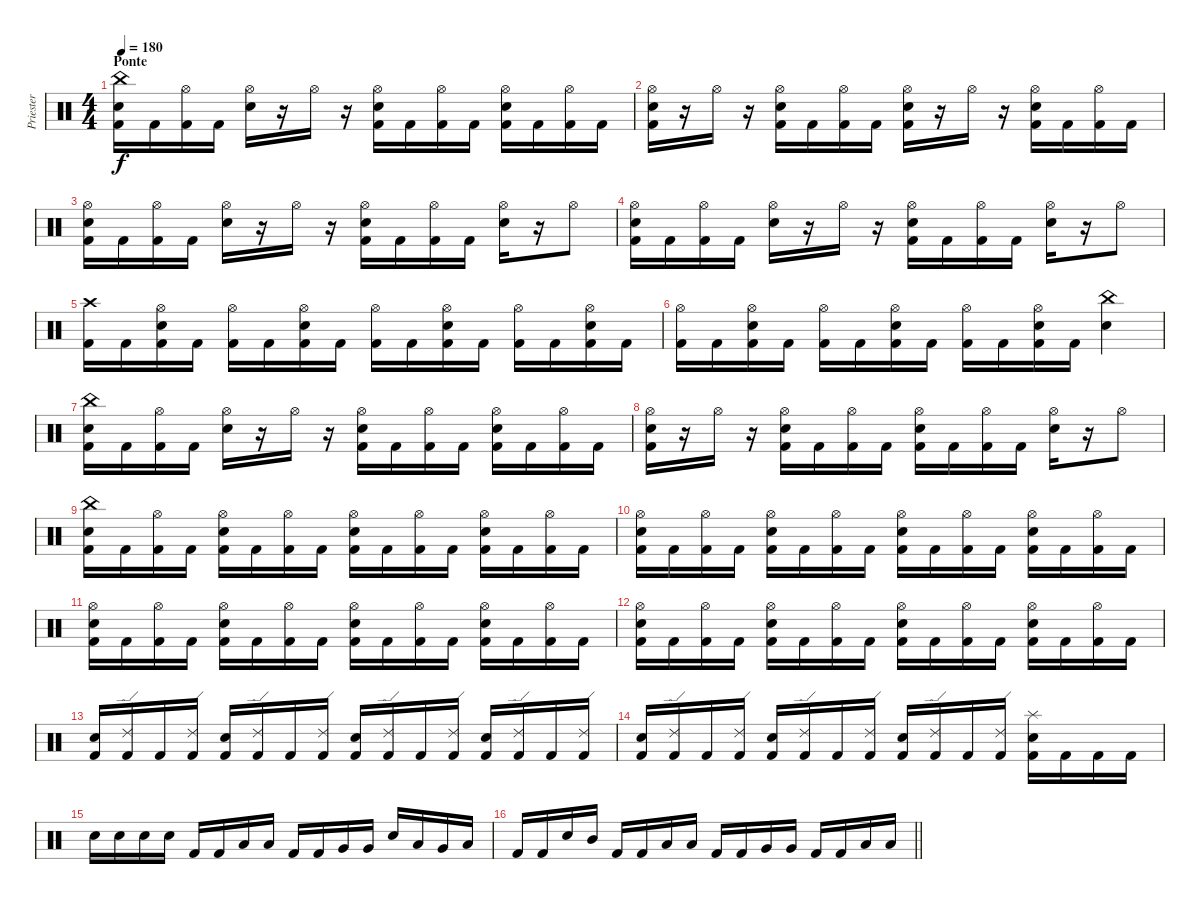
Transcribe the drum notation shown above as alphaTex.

\track ("Priester" "Priester") {instrument percussion}
\staff {score}
\articulation defaults
\ts (4 4)
\section ("" "Ponte")
\tempo 180
\clef neutral
\ks c
("China (hit)" "Electric Snare (hit)" "Kick (hit) 2").16{dy f} "Kick (hit) 2".16 ("Hi-Hat (open)" "Kick (hit) 2").16 "Kick (hit) 2".16 ("Hi-Hat (open)" "Electric Snare (hit)").16 r.16 "Hi-Hat (open)".16 r.16 ("Hi-Hat (open)" "Electric Snare (hit)" "Kick (hit) 2").16 "Kick (hit) 2".16 ("Hi-Hat (open)" "Kick (hit) 2").16 "Kick (hit) 2".16 ("Hi-Hat (open)" "Electric Snare (hit)" "Kick (hit) 2").16 "Kick (hit) 2".16 ("Hi-Hat (open)" "Kick (hit) 2").16 "Kick (hit) 2".16 |
("Hi-Hat (open)" "Electric Snare (hit)" "Kick (hit) 2").16 r.16 "Hi-Hat (open)".16 r.16 ("Hi-Hat (open)" "Electric Snare (hit)" "Kick (hit) 2").16 "Kick (hit) 2".16 ("Hi-Hat (open)" "Kick (hit) 2").16 "Kick (hit) 2".16 ("Hi-Hat (open)" "Electric Snare (hit)" "Kick (hit) 2").16 r.16 "Hi-Hat (open)".16 r.16 ("Hi-Hat (open)" "Electric Snare (hit)" "Kick (hit) 2").16 "Kick (hit) 2".16 ("Hi-Hat (open)" "Kick (hit) 2").16 "Kick (hit) 2".16 |
("Hi-Hat (open)" "Electric Snare (hit)" "Kick (hit) 2").16 "Kick (hit) 2".16 ("Hi-Hat (open)" "Kick (hit) 2").16 "Kick (hit) 2".16 ("Hi-Hat (open)" "Electric Snare (hit)").16 r.16 "Hi-Hat (open)".16 r.16 ("Hi-Hat (open)" "Electric Snare (hit)" "Kick (hit) 2").16 "Kick (hit) 2".16 ("Hi-Hat (open)" "Kick (hit) 2").16 "Kick (hit) 2".16 ("Hi-Hat (open)" "Electric Snare (hit)").16 r.16 "Hi-Hat (open)".8 |
("Hi-Hat (open)" "Electric Snare (hit)" "Kick (hit) 2").16 "Kick (hit) 2".16 ("Hi-Hat (open)" "Kick (hit) 2").16 "Kick (hit) 2".16 ("Hi-Hat (open)" "Electric Snare (hit)").16 r.16 "Hi-Hat (open)".16 r.16 ("Hi-Hat (open)" "Electric Snare (hit)" "Kick (hit) 2").16 "Kick (hit) 2".16 ("Hi-Hat (open)" "Kick (hit) 2").16 "Kick (hit) 2".16 ("Hi-Hat (open)" "Electric Snare (hit)").16 r.16 "Hi-Hat (open)".8 |
("Crash high (hit)" "Kick (hit) 2").16 "Kick (hit) 2".16 ("Hi-Hat (open)" "Electric Snare (hit)" "Kick (hit) 2").16 "Kick (hit) 2".16 ("Hi-Hat (open)" "Kick (hit) 2").16 "Kick (hit) 2".16 ("Hi-Hat (open)" "Electric Snare (hit)" "Kick (hit) 2").16 "Kick (hit) 2".16 ("Hi-Hat (open)" "Kick (hit) 2").16 "Kick (hit) 2".16 ("Hi-Hat (open)" "Electric Snare (hit)" "Kick (hit) 2").16 "Kick (hit) 2".16 ("Hi-Hat (open)" "Kick (hit) 2").16 "Kick (hit) 2".16 ("Hi-Hat (open)" "Electric Snare (hit)" "Kick (hit) 2").16 "Kick (hit) 2".16 |
("Hi-Hat (open)" "Kick (hit) 2").16 "Kick (hit) 2".16 ("Hi-Hat (open)" "Electric Snare (hit)" "Kick (hit) 2").16 "Kick (hit) 2".16 ("Hi-Hat (open)" "Kick (hit) 2").16 "Kick (hit) 2".16 ("Hi-Hat (open)" "Electric Snare (hit)" "Kick (hit) 2").16 "Kick (hit) 2".16 ("Hi-Hat (open)" "Kick (hit) 2").16 "Kick (hit) 2".16 ("Hi-Hat (open)" "Electric Snare (hit)" "Kick (hit) 2").16 "Kick (hit) 2".16 ("China (hit)" "Electric Snare (hit)").4 |
("China (hit)" "Electric Snare (hit)" "Kick (hit) 2").16 "Kick (hit) 2".16 ("Hi-Hat (open)" "Kick (hit) 2").16 "Kick (hit) 2".16 ("Hi-Hat (open)" "Electric Snare (hit)").16 r.16 "Hi-Hat (open)".16 r.16 ("Hi-Hat (open)" "Electric Snare (hit)" "Kick (hit) 2").16 "Kick (hit) 2".16 ("Hi-Hat (open)" "Kick (hit) 2").16 "Kick (hit) 2".16 ("Hi-Hat (open)" "Electric Snare (hit)" "Kick (hit) 2").16 "Kick (hit) 2".16 ("Hi-Hat (open)" "Kick (hit) 2").16 "Kick (hit) 2".16 |
("Hi-Hat (open)" "Electric Snare (hit)" "Kick (hit) 2").16 r.16 "Hi-Hat (open)".16 r.16 ("Hi-Hat (open)" "Electric Snare (hit)" "Kick (hit) 2").16 "Kick (hit) 2".16 ("Hi-Hat (open)" "Kick (hit) 2").16 "Kick (hit) 2".16 ("Hi-Hat (open)" "Electric Snare (hit)" "Kick (hit) 2").16 "Kick (hit) 2".16 ("Hi-Hat (open)" "Kick (hit) 2").16 "Kick (hit) 2".16 ("Hi-Hat (open)" "Electric Snare (hit)").16 r.16 "Hi-Hat (open)".8 |
("China (hit)" "Electric Snare (hit)" "Kick (hit) 2").16 "Kick (hit) 2".16 ("Hi-Hat (open)" "Kick (hit) 2").16 "Kick (hit) 2".16 ("Hi-Hat (open)" "Electric Snare (hit)" "Kick (hit) 2").16 "Kick (hit) 2".16 ("Hi-Hat (open)" "Kick (hit) 2").16 "Kick (hit) 2".16 ("Hi-Hat (open)" "Electric Snare (hit)" "Kick (hit) 2").16 "Kick (hit) 2".16 ("Hi-Hat (open)" "Kick (hit) 2").16 "Kick (hit) 2".16 ("Hi-Hat (open)" "Electric Snare (hit)" "Kick (hit) 2").16 "Kick (hit) 2".16 ("Hi-Hat (open)" "Kick (hit) 2").16 "Kick (hit) 2".16 |
("Hi-Hat (open)" "Electric Snare (hit)" "Kick (hit) 2").16 "Kick (hit) 2".16 ("Hi-Hat (open)" "Kick (hit) 2").16 "Kick (hit) 2".16 ("Hi-Hat (open)" "Electric Snare (hit)" "Kick (hit) 2").16 "Kick (hit) 2".16 ("Hi-Hat (open)" "Kick (hit) 2").16 "Kick (hit) 2".16 ("Hi-Hat (open)" "Electric Snare (hit)" "Kick (hit) 2").16 "Kick (hit) 2".16 ("Hi-Hat (open)" "Kick (hit) 2").16 "Kick (hit) 2".16 ("Hi-Hat (open)" "Electric Snare (hit)" "Kick (hit) 2").16 "Kick (hit) 2".16 ("Hi-Hat (open)" "Kick (hit) 2").16 "Kick (hit) 2".16 |
("Hi-Hat (open)" "Electric Snare (hit)" "Kick (hit) 2").16 "Kick (hit) 2".16 ("Hi-Hat (open)" "Kick (hit) 2").16 "Kick (hit) 2".16 ("Hi-Hat (open)" "Electric Snare (hit)" "Kick (hit) 2").16 "Kick (hit) 2".16 ("Hi-Hat (open)" "Kick (hit) 2").16 "Kick (hit) 2".16 ("Hi-Hat (open)" "Electric Snare (hit)" "Kick (hit) 2").16 "Kick (hit) 2".16 ("Hi-Hat (open)" "Kick (hit) 2").16 "Kick (hit) 2".16 ("Hi-Hat (open)" "Electric Snare (hit)" "Kick (hit) 2").16 "Kick (hit) 2".16 ("Hi-Hat (open)" "Kick (hit) 2").16 "Kick (hit) 2".16 |
("Hi-Hat (open)" "Electric Snare (hit)" "Kick (hit) 2").16 "Kick (hit) 2".16 ("Hi-Hat (open)" "Kick (hit) 2").16 "Kick (hit) 2".16 ("Hi-Hat (open)" "Electric Snare (hit)" "Kick (hit) 2").16 "Kick (hit) 2".16 ("Hi-Hat (open)" "Kick (hit) 2").16 "Kick (hit) 2".16 ("Hi-Hat (open)" "Electric Snare (hit)" "Kick (hit) 2").16 "Kick (hit) 2".16 ("Hi-Hat (open)" "Kick (hit) 2").16 "Kick (hit) 2".16 ("Hi-Hat (open)" "Electric Snare (hit)" "Kick (hit) 2").16 "Kick (hit) 2".16 ("Hi-Hat (open)" "Kick (hit) 2").16 "Kick (hit) 2".16 |
("Electric Snare (hit)" "Kick (hit) 2").16 ("Ride (edge) 2" "Kick (hit) 2").16 "Kick (hit) 2".16 ("Ride (edge) 2" "Kick (hit) 2").16 ("Electric Snare (hit)" "Kick (hit) 2").16 ("Ride (edge) 2" "Kick (hit) 2").16 "Kick (hit) 2".16 ("Ride (edge) 2" "Kick (hit) 2").16 ("Electric Snare (hit)" "Kick (hit) 2").16 ("Ride (edge) 2" "Kick (hit) 2").16 "Kick (hit) 2".16 ("Ride (edge) 2" "Kick (hit) 2").16 ("Electric Snare (hit)" "Kick (hit) 2").16 ("Ride (edge) 2" "Kick (hit) 2").16 "Kick (hit) 2".16 ("Ride (edge) 2" "Kick (hit) 2").16 |
("Electric Snare (hit)" "Kick (hit) 2").16 ("Ride (edge) 2" "Kick (hit) 2").16 "Kick (hit) 2".16 ("Ride (edge) 2" "Kick (hit) 2").16 ("Electric Snare (hit)" "Kick (hit) 2").16 ("Ride (edge) 2" "Kick (hit) 2").16 "Kick (hit) 2".16 ("Ride (edge) 2" "Kick (hit) 2").16 ("Electric Snare (hit)" "Kick (hit) 2").16 ("Ride (edge) 2" "Kick (hit) 2").16 "Kick (hit) 2".16 ("Ride (edge) 2" "Kick (hit) 2").16 ("Splash (hit)" "Electric Snare (hit)" "Kick (hit) 2").16 "Kick (hit) 2".16 "Kick (hit) 2".16 "Kick (hit) 2".16 |
"Electric Snare (hit)".16 "Electric Snare (hit)".16 "Electric Snare (hit)".16 "Electric Snare (hit)".16 "Kick (hit) 2".16 "Kick (hit) 2".16 "Low Tom (hit)".16 "Low Tom (hit)".16 "Kick (hit) 2".16 "Kick (hit) 2".16 "Very Low Tom (hit)".16 "Very Low Tom (hit)".16 "Electric Snare (hit)".16 "Low Tom (hit)".16 "Very Low Tom (hit)".16 "Low Floor Tom (hit)".16 |
\barLineRight lightlight "Kick (hit) 2".16 "Kick (hit) 2".16 "Electric Snare (hit)".16 "Mid Tom (hit)".16 "Kick (hit) 2".16 "Kick (hit) 2".16 "Low Tom (hit)".16 "Low Tom (hit)".16 "Kick (hit) 2".16 "Kick (hit) 2".16 "Very Low Tom (hit)".16 "Very Low Tom (hit)".16 "Kick (hit) 2".16 "Kick (hit) 2".16 "Low Floor Tom (hit)".16 "Low Floor Tom (hit)".16
